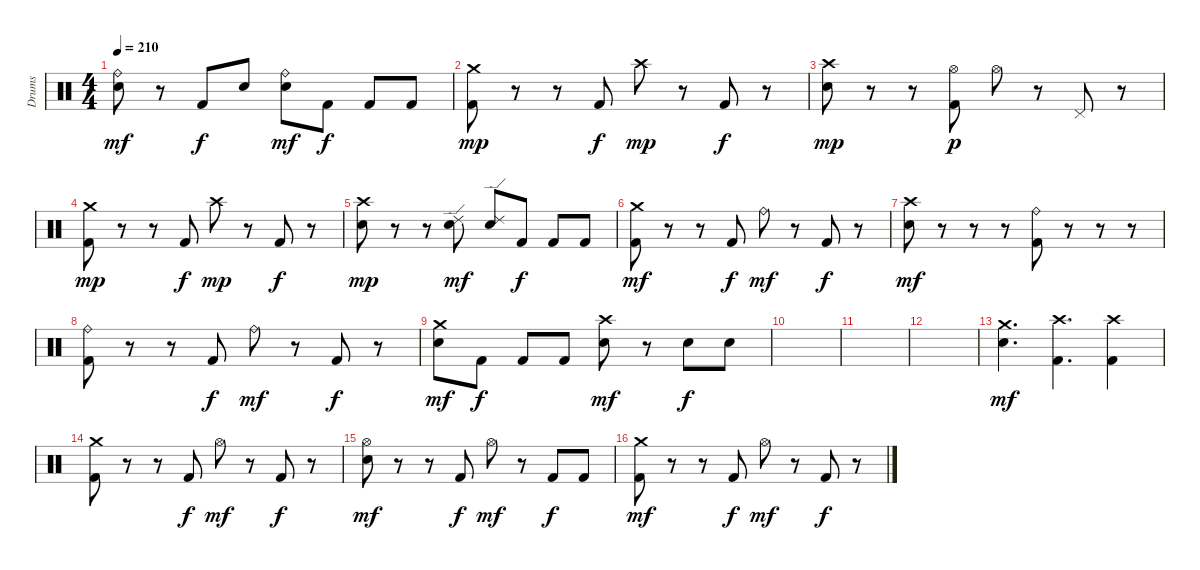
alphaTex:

\track ("Drums" "Drums") {instrument percussion}
\staff {score}
\articulation defaults
\ts (4 4)
\tempo 210
\clef neutral
\ks c
("Snare (hit) 2" "Ride (bell)").8{dy mf} r.8 "Kick (hit) 2".8{dy f} "Snare (hit) 2".8 ("Snare (hit) 2" "Ride (bell)").8{dy mf} "Kick (hit) 2".8{dy f} "Kick (hit) 2".8 "Kick (hit) 2".8 |
("Kick (hit) 2" "Crash medium (hit)").8{dy mp} r.8 r.8 "Kick (hit) 2".8{dy f} "Crash high (hit)".8{dy mp} r.8 "Kick (hit) 2".8{dy f} r.8 |
("Snare (hit) 2" "Crash high (hit)").8{dy mp} r.8 r.8 ("Kick (hit) 2" "Hi-Hat (open)").8{dy p} "Hi-Hat (open)".8 r.8 "Pedal Hi-Hat (hit)".8 r.8 |
("Kick (hit) 2" "Crash medium (hit)").8{dy mp} r.8 r.8 "Kick (hit) 2".8{dy f} "Crash high (hit)".8{dy mp} r.8 "Kick (hit) 2".8{dy f} r.8 |
("Snare (hit) 2" "Crash high (hit)").8{dy mp} r.8 r.8 ("Snare (hit) 2" "Ride (edge) 2").8{dy mf} ("Snare (hit) 2" "Ride (edge) 2").8 "Kick (hit) 2".8{dy f} "Kick (hit) 2".8 "Kick (hit) 2".8 |
("Kick (hit) 2" "Crash medium (hit)").8{dy mf} r.8 r.8 "Kick (hit) 2".8{dy f} "Ride (bell)".8{dy mf} r.8 "Kick (hit) 2".8{dy f} r.8 |
("Snare (hit) 2" "Crash high (hit)").8{dy mf} r.8 r.8 r.8 ("Kick (hit) 2" "Ride (bell)").8 r.8 r.8 r.8 |
("Kick (hit) 2" "Ride (bell)").8 r.8 r.8 "Kick (hit) 2".8{dy f} "Ride (bell)".8{dy mf} r.8 "Kick (hit) 2".8{dy f} r.8 |
("Snare (hit) 2" "Crash medium (hit)").8{dy mf} "Kick (hit) 2".8{dy f} "Kick (hit) 2".8 "Kick (hit) 2".8 ("Snare (hit) 2" "Crash high (hit)").8{dy mf} r.8 "Snare (hit) 2".8{dy f} "Snare (hit) 2".8 |
|
|
|
("Snare (hit) 2" "Crash medium (hit)").4{d dy mf} ("Kick (hit) 2" "Crash high (hit)").4{d} ("Kick (hit) 2" "Crash high (hit)").4 |
("Kick (hit) 2" "Crash medium (hit)").8 r.8 r.8 "Kick (hit) 2".8{dy f} "Hi-Hat (open)".8{dy mf} r.8 "Kick (hit) 2".8{dy f} r.8 |
("Snare (hit) 2" "Hi-Hat (open)").8{dy mf} r.8 r.8 "Kick (hit) 2".8{dy f} "Hi-Hat (open)".8{dy mf} r.8 "Kick (hit) 2".8{dy f} "Kick (hit) 2".8 |
("Kick (hit) 2" "Crash medium (hit)").8{dy mf} r.8 r.8 "Kick (hit) 2".8{dy f} "Hi-Hat (open)".8{dy mf} r.8 "Kick (hit) 2".8{dy f} r.8
